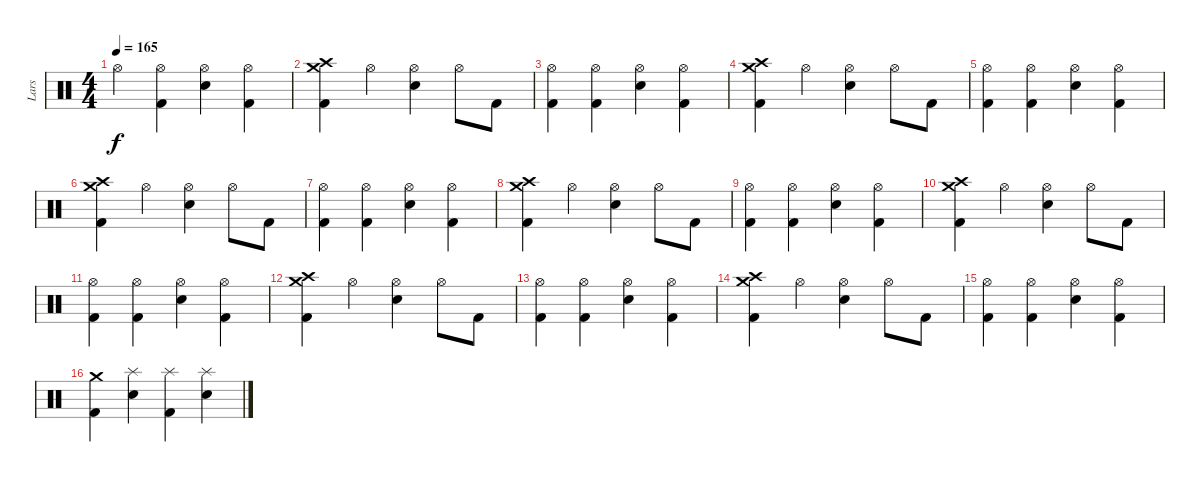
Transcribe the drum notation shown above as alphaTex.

\track ("Lars" "Lars") {instrument percussion}
\staff {score}
\articulation defaults
\ts (4 4)
\tempo 165
\clef neutral
\ks c "Hi-Hat (open)".4{dy f}
("Hi-Hat (open)" "Kick (hit) 2").4 ("Hi-Hat (open)" "Snare (hit) 2").4 ("Hi-Hat (open)" "Kick (hit) 2").4 |
("Crash high (hit)" "Crash medium (hit)" "Kick (hit) 2").4 "Hi-Hat (open)".4 ("Hi-Hat (open)" "Snare (hit) 2").4 "Hi-Hat (open)".8 "Kick (hit) 2".8 |
("Hi-Hat (open)" "Kick (hit) 2").4 ("Hi-Hat (open)" "Kick (hit) 2").4 ("Hi-Hat (open)" "Snare (hit) 2").4 ("Hi-Hat (open)" "Kick (hit) 2").4 |
("Crash high (hit)" "Crash medium (hit)" "Kick (hit) 2").4 "Hi-Hat (open)".4 ("Hi-Hat (open)" "Snare (hit) 2").4 "Hi-Hat (open)".8 "Kick (hit) 2".8 |
("Hi-Hat (open)" "Kick (hit) 2").4 ("Hi-Hat (open)" "Kick (hit) 2").4 ("Hi-Hat (open)" "Snare (hit) 2").4 ("Hi-Hat (open)" "Kick (hit) 2").4 |
("Crash high (hit)" "Crash medium (hit)" "Kick (hit) 2").4 "Hi-Hat (open)".4 ("Hi-Hat (open)" "Snare (hit) 2").4 "Hi-Hat (open)".8 "Kick (hit) 2".8 |
("Hi-Hat (open)" "Kick (hit) 2").4 ("Hi-Hat (open)" "Kick (hit) 2").4 ("Hi-Hat (open)" "Snare (hit) 2").4 ("Hi-Hat (open)" "Kick (hit) 2").4 |
("Crash high (hit)" "Crash medium (hit)" "Kick (hit) 2").4 "Hi-Hat (open)".4 ("Hi-Hat (open)" "Snare (hit) 2").4 "Hi-Hat (open)".8 "Kick (hit) 2".8 |
("Hi-Hat (open)" "Kick (hit) 2").4 ("Hi-Hat (open)" "Kick (hit) 2").4 ("Hi-Hat (open)" "Snare (hit) 2").4 ("Hi-Hat (open)" "Kick (hit) 2").4 |
("Crash high (hit)" "Crash medium (hit)" "Kick (hit) 2").4 "Hi-Hat (open)".4 ("Hi-Hat (open)" "Snare (hit) 2").4 "Hi-Hat (open)".8 "Kick (hit) 2".8 |
("Hi-Hat (open)" "Kick (hit) 2").4 ("Hi-Hat (open)" "Kick (hit) 2").4 ("Hi-Hat (open)" "Snare (hit) 2").4 ("Hi-Hat (open)" "Kick (hit) 2").4 |
("Crash high (hit)" "Crash medium (hit)" "Kick (hit) 2").4 "Hi-Hat (open)".4 ("Hi-Hat (open)" "Snare (hit) 2").4 "Hi-Hat (open)".8 "Kick (hit) 2".8 |
("Hi-Hat (open)" "Kick (hit) 2").4 ("Hi-Hat (open)" "Kick (hit) 2").4 ("Hi-Hat (open)" "Snare (hit) 2").4 ("Hi-Hat (open)" "Kick (hit) 2").4 |
("Crash high (hit)" "Crash medium (hit)" "Kick (hit) 2").4 "Hi-Hat (open)".4 ("Hi-Hat (open)" "Snare (hit) 2").4 "Hi-Hat (open)".8 "Kick (hit) 2".8 |
("Hi-Hat (open)" "Kick (hit) 2").4 ("Hi-Hat (open)" "Kick (hit) 2").4 ("Hi-Hat (open)" "Snare (hit) 2").4 ("Hi-Hat (open)" "Kick (hit) 2").4 |
("Crash medium (hit)" "Kick (hit) 2").4 ("Splash (hit)" "Snare (hit) 2").4 ("Splash (hit)" "Kick (hit) 2").4 ("Splash (hit)" "Snare (hit) 2").4
